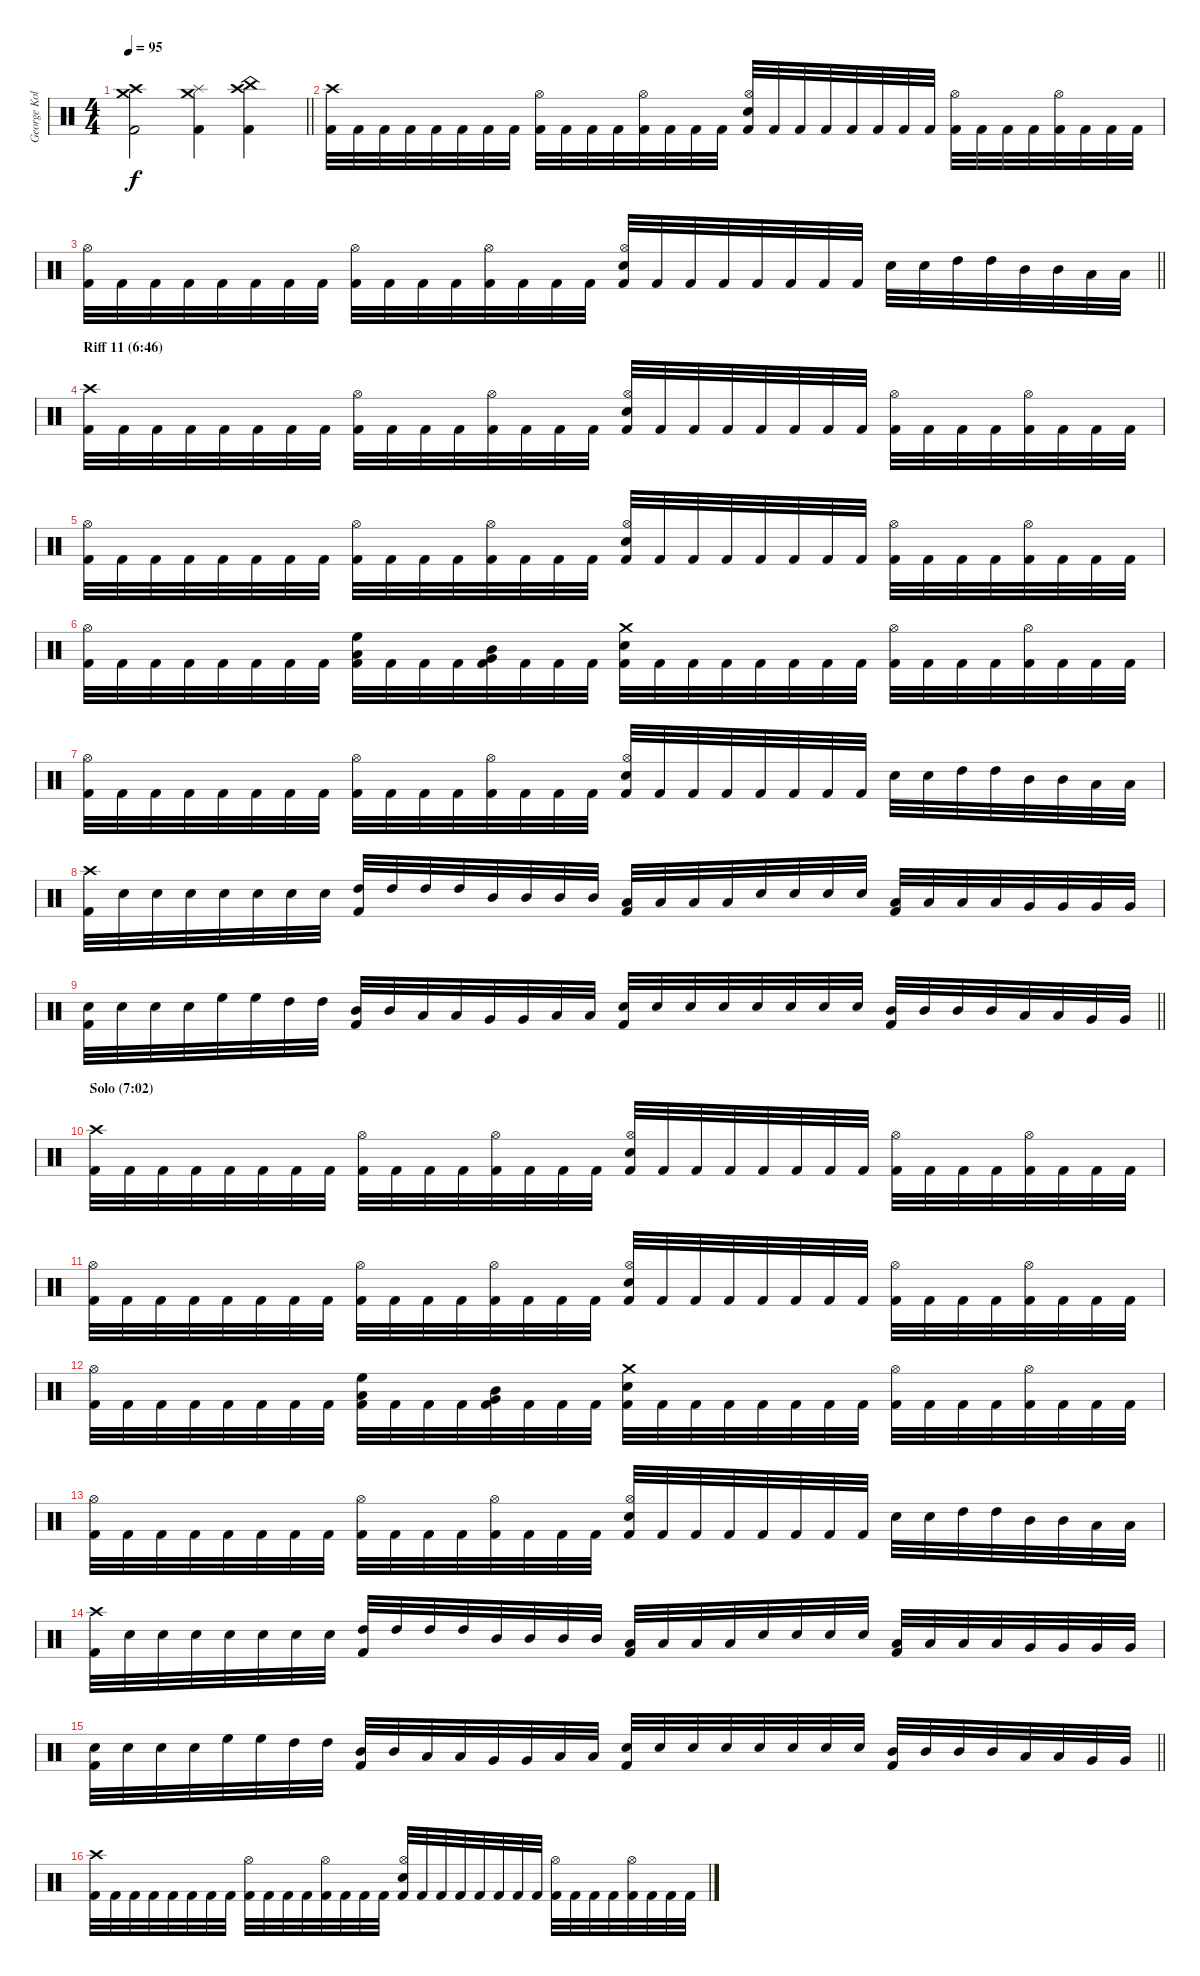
\track ("George Kollias" "George Kol") {instrument percussion}
\staff {score}
\articulation defaults
\ts (4 4)
\tempo 95
\clef neutral
\barLineRight lightlight
\ks c
("Crash high (hit)" "Crash medium (hit)" "Kick (hit) 2").2{dy f} ("Crash medium (hit)" "Splash (hit)" "Kick (hit) 2").4 ("Crash high (hit)" "China (hit)" "Kick (hit) 2").4 |
\section ("" "")
("Crash high (hit)" "Kick (hit) 2").32 "Kick (hit) 2".32 "Kick (hit) 2".32 "Kick (hit) 2".32 "Kick (hit) 2".32 "Kick (hit) 2".32 "Kick (hit) 2".32 "Kick (hit) 2".32 ("Hi-Hat (open)" "Kick (hit) 2").32 "Kick (hit) 2".32 "Kick (hit) 2".32 "Kick (hit) 2".32 ("Hi-Hat (open)" "Kick (hit) 2").32 "Kick (hit) 2".32 "Kick (hit) 2".32 "Kick (hit) 2".32 ("Hi-Hat (open)" "Electric Snare (hit)" "Kick (hit) 2").32 "Kick (hit) 2".32 "Kick (hit) 2".32 "Kick (hit) 2".32 "Kick (hit) 2".32 "Kick (hit) 2".32 "Kick (hit) 2".32 "Kick (hit) 2".32 ("Hi-Hat (open)" "Kick (hit) 2").32 "Kick (hit) 2".32 "Kick (hit) 2".32 "Kick (hit) 2".32 ("Hi-Hat (open)" "Kick (hit) 2").32 "Kick (hit) 2".32 "Kick (hit) 2".32 "Kick (hit) 2".32 |
\barLineRight lightlight
("Hi-Hat (open)" "Kick (hit) 2").32 "Kick (hit) 2".32 "Kick (hit) 2".32 "Kick (hit) 2".32 "Kick (hit) 2".32 "Kick (hit) 2".32 "Kick (hit) 2".32 "Kick (hit) 2".32 ("Hi-Hat (open)" "Kick (hit) 2").32 "Kick (hit) 2".32 "Kick (hit) 2".32 "Kick (hit) 2".32 ("Hi-Hat (open)" "Kick (hit) 2").32 "Kick (hit) 2".32 "Kick (hit) 2".32 "Kick (hit) 2".32 ("Hi-Hat (open)" "Electric Snare (hit)" "Kick (hit) 2").32 "Kick (hit) 2".32 "Kick (hit) 2".32 "Kick (hit) 2".32 "Kick (hit) 2".32 "Kick (hit) 2".32 "Kick (hit) 2".32 "Kick (hit) 2".32 "Electric Snare (hit)".32 "Electric Snare (hit)".32 "High Tom (hit)".32 "High Tom (hit)".32 "Mid Tom (hit)".32 "Mid Tom (hit)".32 "Low Tom (hit)".32 "Low Tom (hit)".32 |
\section ("" "Riff 11 (6:46)")
("Crash high (hit)" "Kick (hit) 2").32 "Kick (hit) 2".32 "Kick (hit) 2".32 "Kick (hit) 2".32 "Kick (hit) 2".32 "Kick (hit) 2".32 "Kick (hit) 2".32 "Kick (hit) 2".32 ("Hi-Hat (open)" "Kick (hit) 2").32 "Kick (hit) 2".32 "Kick (hit) 2".32 "Kick (hit) 2".32 ("Hi-Hat (open)" "Kick (hit) 2").32 "Kick (hit) 2".32 "Kick (hit) 2".32 "Kick (hit) 2".32 ("Hi-Hat (open)" "Electric Snare (hit)" "Kick (hit) 2").32 "Kick (hit) 2".32 "Kick (hit) 2".32 "Kick (hit) 2".32 "Kick (hit) 2".32 "Kick (hit) 2".32 "Kick (hit) 2".32 "Kick (hit) 2".32 ("Hi-Hat (open)" "Kick (hit) 2").32 "Kick (hit) 2".32 "Kick (hit) 2".32 "Kick (hit) 2".32 ("Hi-Hat (open)" "Kick (hit) 2").32 "Kick (hit) 2".32 "Kick (hit) 2".32 "Kick (hit) 2".32 |
("Hi-Hat (open)" "Kick (hit) 2").32 "Kick (hit) 2".32 "Kick (hit) 2".32 "Kick (hit) 2".32 "Kick (hit) 2".32 "Kick (hit) 2".32 "Kick (hit) 2".32 "Kick (hit) 2".32 ("Hi-Hat (open)" "Kick (hit) 2").32 "Kick (hit) 2".32 "Kick (hit) 2".32 "Kick (hit) 2".32 ("Hi-Hat (open)" "Kick (hit) 2").32 "Kick (hit) 2".32 "Kick (hit) 2".32 "Kick (hit) 2".32 ("Hi-Hat (open)" "Electric Snare (hit)" "Kick (hit) 2").32 "Kick (hit) 2".32 "Kick (hit) 2".32 "Kick (hit) 2".32 "Kick (hit) 2".32 "Kick (hit) 2".32 "Kick (hit) 2".32 "Kick (hit) 2".32 ("Hi-Hat (open)" "Kick (hit) 2").32 "Kick (hit) 2".32 "Kick (hit) 2".32 "Kick (hit) 2".32 ("Hi-Hat (open)" "Kick (hit) 2").32 "Kick (hit) 2".32 "Kick (hit) 2".32 "Kick (hit) 2".32 |
("Hi-Hat (open)" "Kick (hit) 2").32 "Kick (hit) 2".32 "Kick (hit) 2".32 "Kick (hit) 2".32 "Kick (hit) 2".32 "Kick (hit) 2".32 "Kick (hit) 2".32 "Kick (hit) 2".32 ("High Floor Tom (hit)" "Low Tom (hit)" "Kick (hit) 2").32 "Kick (hit) 2".32 "Kick (hit) 2".32 "Kick (hit) 2".32 ("Mid Tom (hit)" "Very Low Tom (hit)" "Kick (hit) 2").32 "Kick (hit) 2".32 "Kick (hit) 2".32 "Kick (hit) 2".32 ("Crash medium (hit)" "Electric Snare (hit)" "Kick (hit) 2").32 "Kick (hit) 2".32 "Kick (hit) 2".32 "Kick (hit) 2".32 "Kick (hit) 2".32 "Kick (hit) 2".32 "Kick (hit) 2".32 "Kick (hit) 2".32 ("Hi-Hat (open)" "Kick (hit) 2").32 "Kick (hit) 2".32 "Kick (hit) 2".32 "Kick (hit) 2".32 ("Hi-Hat (open)" "Kick (hit) 2").32 "Kick (hit) 2".32 "Kick (hit) 2".32 "Kick (hit) 2".32 |
("Hi-Hat (open)" "Kick (hit) 2").32 "Kick (hit) 2".32 "Kick (hit) 2".32 "Kick (hit) 2".32 "Kick (hit) 2".32 "Kick (hit) 2".32 "Kick (hit) 2".32 "Kick (hit) 2".32 ("Hi-Hat (open)" "Kick (hit) 2").32 "Kick (hit) 2".32 "Kick (hit) 2".32 "Kick (hit) 2".32 ("Hi-Hat (open)" "Kick (hit) 2").32 "Kick (hit) 2".32 "Kick (hit) 2".32 "Kick (hit) 2".32 ("Hi-Hat (open)" "Electric Snare (hit)" "Kick (hit) 2").32 "Kick (hit) 2".32 "Kick (hit) 2".32 "Kick (hit) 2".32 "Kick (hit) 2".32 "Kick (hit) 2".32 "Kick (hit) 2".32 "Kick (hit) 2".32 "Electric Snare (hit)".32 "Electric Snare (hit)".32 "High Tom (hit)".32 "High Tom (hit)".32 "Mid Tom (hit)".32 "Mid Tom (hit)".32 "Low Tom (hit)".32 "Low Tom (hit)".32 |
("Crash high (hit)" "Kick (hit) 2").32 "Electric Snare (hit)".32 "Electric Snare (hit)".32 "Electric Snare (hit)".32 "Electric Snare (hit)".32 "Electric Snare (hit)".32 "Electric Snare (hit)".32 "Electric Snare (hit)".32 ("High Tom (hit)" "Kick (hit) 2").32 "High Tom (hit)".32 "High Tom (hit)".32 "High Tom (hit)".32 "Mid Tom (hit)".32 "Mid Tom (hit)".32 "Mid Tom (hit)".32 "Mid Tom (hit)".32 ("Low Tom (hit)" "Kick (hit) 2").32 "Low Tom (hit)".32 "Low Tom (hit)".32 "Low Tom (hit)".32 "Electric Snare (hit)".32 "Electric Snare (hit)".32 "Electric Snare (hit)".32 "Electric Snare (hit)".32 ("Low Tom (hit)" "Kick (hit) 2").32 "Low Tom (hit)".32 "Low Tom (hit)".32 "Low Tom (hit)".32 "Very Low Tom (hit)".32 "Very Low Tom (hit)".32 "Very Low Tom (hit)".32 "Very Low Tom (hit)".32 |
\barLineRight lightlight
("Electric Snare (hit)" "Kick (hit) 2").32 "Electric Snare (hit)".32 "Electric Snare (hit)".32 "Electric Snare (hit)".32 "High Floor Tom (hit)".32 "High Floor Tom (hit)".32 "High Tom (hit)".32 "High Tom (hit)".32 ("Mid Tom (hit)" "Kick (hit) 2").32 "Mid Tom (hit)".32 "Low Tom (hit)".32 "Low Tom (hit)".32 "Very Low Tom (hit)".32 "Very Low Tom (hit)".32 "Low Floor Tom (hit)".32 "Low Floor Tom (hit)".32 ("Electric Snare (hit)" "Kick (hit) 2").32 "Electric Snare (hit)".32 "Electric Snare (hit)".32 "Electric Snare (hit)".32 "Electric Snare (hit)".32 "Electric Snare (hit)".32 "Electric Snare (hit)".32 "Electric Snare (hit)".32 ("Mid Tom (hit)" "Kick (hit) 2").32 "Mid Tom (hit)".32 "Mid Tom (hit)".32 "Mid Tom (hit)".32 "Low Tom (hit)".32 "Low Tom (hit)".32 "Very Low Tom (hit)".32 "Very Low Tom (hit)".32 |
\section ("" "Solo (7:02)")
("Crash high (hit)" "Kick (hit) 2").32 "Kick (hit) 2".32 "Kick (hit) 2".32 "Kick (hit) 2".32 "Kick (hit) 2".32 "Kick (hit) 2".32 "Kick (hit) 2".32 "Kick (hit) 2".32 ("Hi-Hat (open)" "Kick (hit) 2").32 "Kick (hit) 2".32 "Kick (hit) 2".32 "Kick (hit) 2".32 ("Hi-Hat (open)" "Kick (hit) 2").32 "Kick (hit) 2".32 "Kick (hit) 2".32 "Kick (hit) 2".32 ("Hi-Hat (open)" "Electric Snare (hit)" "Kick (hit) 2").32 "Kick (hit) 2".32 "Kick (hit) 2".32 "Kick (hit) 2".32 "Kick (hit) 2".32 "Kick (hit) 2".32 "Kick (hit) 2".32 "Kick (hit) 2".32 ("Hi-Hat (open)" "Kick (hit) 2").32 "Kick (hit) 2".32 "Kick (hit) 2".32 "Kick (hit) 2".32 ("Hi-Hat (open)" "Kick (hit) 2").32 "Kick (hit) 2".32 "Kick (hit) 2".32 "Kick (hit) 2".32 |
("Hi-Hat (open)" "Kick (hit) 2").32 "Kick (hit) 2".32 "Kick (hit) 2".32 "Kick (hit) 2".32 "Kick (hit) 2".32 "Kick (hit) 2".32 "Kick (hit) 2".32 "Kick (hit) 2".32 ("Hi-Hat (open)" "Kick (hit) 2").32 "Kick (hit) 2".32 "Kick (hit) 2".32 "Kick (hit) 2".32 ("Hi-Hat (open)" "Kick (hit) 2").32 "Kick (hit) 2".32 "Kick (hit) 2".32 "Kick (hit) 2".32 ("Hi-Hat (open)" "Electric Snare (hit)" "Kick (hit) 2").32 "Kick (hit) 2".32 "Kick (hit) 2".32 "Kick (hit) 2".32 "Kick (hit) 2".32 "Kick (hit) 2".32 "Kick (hit) 2".32 "Kick (hit) 2".32 ("Hi-Hat (open)" "Kick (hit) 2").32 "Kick (hit) 2".32 "Kick (hit) 2".32 "Kick (hit) 2".32 ("Hi-Hat (open)" "Kick (hit) 2").32 "Kick (hit) 2".32 "Kick (hit) 2".32 "Kick (hit) 2".32 |
("Hi-Hat (open)" "Kick (hit) 2").32 "Kick (hit) 2".32 "Kick (hit) 2".32 "Kick (hit) 2".32 "Kick (hit) 2".32 "Kick (hit) 2".32 "Kick (hit) 2".32 "Kick (hit) 2".32 ("High Floor Tom (hit)" "Low Tom (hit)" "Kick (hit) 2").32 "Kick (hit) 2".32 "Kick (hit) 2".32 "Kick (hit) 2".32 ("Mid Tom (hit)" "Very Low Tom (hit)" "Kick (hit) 2").32 "Kick (hit) 2".32 "Kick (hit) 2".32 "Kick (hit) 2".32 ("Crash medium (hit)" "Electric Snare (hit)" "Kick (hit) 2").32 "Kick (hit) 2".32 "Kick (hit) 2".32 "Kick (hit) 2".32 "Kick (hit) 2".32 "Kick (hit) 2".32 "Kick (hit) 2".32 "Kick (hit) 2".32 ("Hi-Hat (open)" "Kick (hit) 2").32 "Kick (hit) 2".32 "Kick (hit) 2".32 "Kick (hit) 2".32 ("Hi-Hat (open)" "Kick (hit) 2").32 "Kick (hit) 2".32 "Kick (hit) 2".32 "Kick (hit) 2".32 |
("Hi-Hat (open)" "Kick (hit) 2").32 "Kick (hit) 2".32 "Kick (hit) 2".32 "Kick (hit) 2".32 "Kick (hit) 2".32 "Kick (hit) 2".32 "Kick (hit) 2".32 "Kick (hit) 2".32 ("Hi-Hat (open)" "Kick (hit) 2").32 "Kick (hit) 2".32 "Kick (hit) 2".32 "Kick (hit) 2".32 ("Hi-Hat (open)" "Kick (hit) 2").32 "Kick (hit) 2".32 "Kick (hit) 2".32 "Kick (hit) 2".32 ("Hi-Hat (open)" "Electric Snare (hit)" "Kick (hit) 2").32 "Kick (hit) 2".32 "Kick (hit) 2".32 "Kick (hit) 2".32 "Kick (hit) 2".32 "Kick (hit) 2".32 "Kick (hit) 2".32 "Kick (hit) 2".32 "Electric Snare (hit)".32 "Electric Snare (hit)".32 "High Tom (hit)".32 "High Tom (hit)".32 "Mid Tom (hit)".32 "Mid Tom (hit)".32 "Low Tom (hit)".32 "Low Tom (hit)".32 |
("Crash high (hit)" "Kick (hit) 2").32 "Electric Snare (hit)".32 "Electric Snare (hit)".32 "Electric Snare (hit)".32 "Electric Snare (hit)".32 "Electric Snare (hit)".32 "Electric Snare (hit)".32 "Electric Snare (hit)".32 ("High Tom (hit)" "Kick (hit) 2").32 "High Tom (hit)".32 "High Tom (hit)".32 "High Tom (hit)".32 "Mid Tom (hit)".32 "Mid Tom (hit)".32 "Mid Tom (hit)".32 "Mid Tom (hit)".32 ("Low Tom (hit)" "Kick (hit) 2").32 "Low Tom (hit)".32 "Low Tom (hit)".32 "Low Tom (hit)".32 "Electric Snare (hit)".32 "Electric Snare (hit)".32 "Electric Snare (hit)".32 "Electric Snare (hit)".32 ("Low Tom (hit)" "Kick (hit) 2").32 "Low Tom (hit)".32 "Low Tom (hit)".32 "Low Tom (hit)".32 "Very Low Tom (hit)".32 "Very Low Tom (hit)".32 "Very Low Tom (hit)".32 "Very Low Tom (hit)".32 |
\barLineRight lightlight
("Electric Snare (hit)" "Kick (hit) 2").32 "Electric Snare (hit)".32 "Electric Snare (hit)".32 "Electric Snare (hit)".32 "High Floor Tom (hit)".32 "High Floor Tom (hit)".32 "High Tom (hit)".32 "High Tom (hit)".32 ("Mid Tom (hit)" "Kick (hit) 2").32 "Mid Tom (hit)".32 "Low Tom (hit)".32 "Low Tom (hit)".32 "Very Low Tom (hit)".32 "Very Low Tom (hit)".32 "Low Floor Tom (hit)".32 "Low Floor Tom (hit)".32 ("Electric Snare (hit)" "Kick (hit) 2").32 "Electric Snare (hit)".32 "Electric Snare (hit)".32 "Electric Snare (hit)".32 "Electric Snare (hit)".32 "Electric Snare (hit)".32 "Electric Snare (hit)".32 "Electric Snare (hit)".32 ("Mid Tom (hit)" "Kick (hit) 2").32 "Mid Tom (hit)".32 "Mid Tom (hit)".32 "Mid Tom (hit)".32 "Low Tom (hit)".32 "Low Tom (hit)".32 "Very Low Tom (hit)".32 "Very Low Tom (hit)".32 |
("Crash high (hit)" "Kick (hit) 2").32 "Kick (hit) 2".32 "Kick (hit) 2".32 "Kick (hit) 2".32 "Kick (hit) 2".32 "Kick (hit) 2".32 "Kick (hit) 2".32 "Kick (hit) 2".32 ("Hi-Hat (open)" "Kick (hit) 2").32 "Kick (hit) 2".32 "Kick (hit) 2".32 "Kick (hit) 2".32 ("Hi-Hat (open)" "Kick (hit) 2").32 "Kick (hit) 2".32 "Kick (hit) 2".32 "Kick (hit) 2".32 ("Hi-Hat (open)" "Electric Snare (hit)" "Kick (hit) 2").32 "Kick (hit) 2".32 "Kick (hit) 2".32 "Kick (hit) 2".32 "Kick (hit) 2".32 "Kick (hit) 2".32 "Kick (hit) 2".32 "Kick (hit) 2".32 ("Hi-Hat (open)" "Kick (hit) 2").32 "Kick (hit) 2".32 "Kick (hit) 2".32 "Kick (hit) 2".32 ("Hi-Hat (open)" "Kick (hit) 2").32 "Kick (hit) 2".32 "Kick (hit) 2".32 "Kick (hit) 2".32
